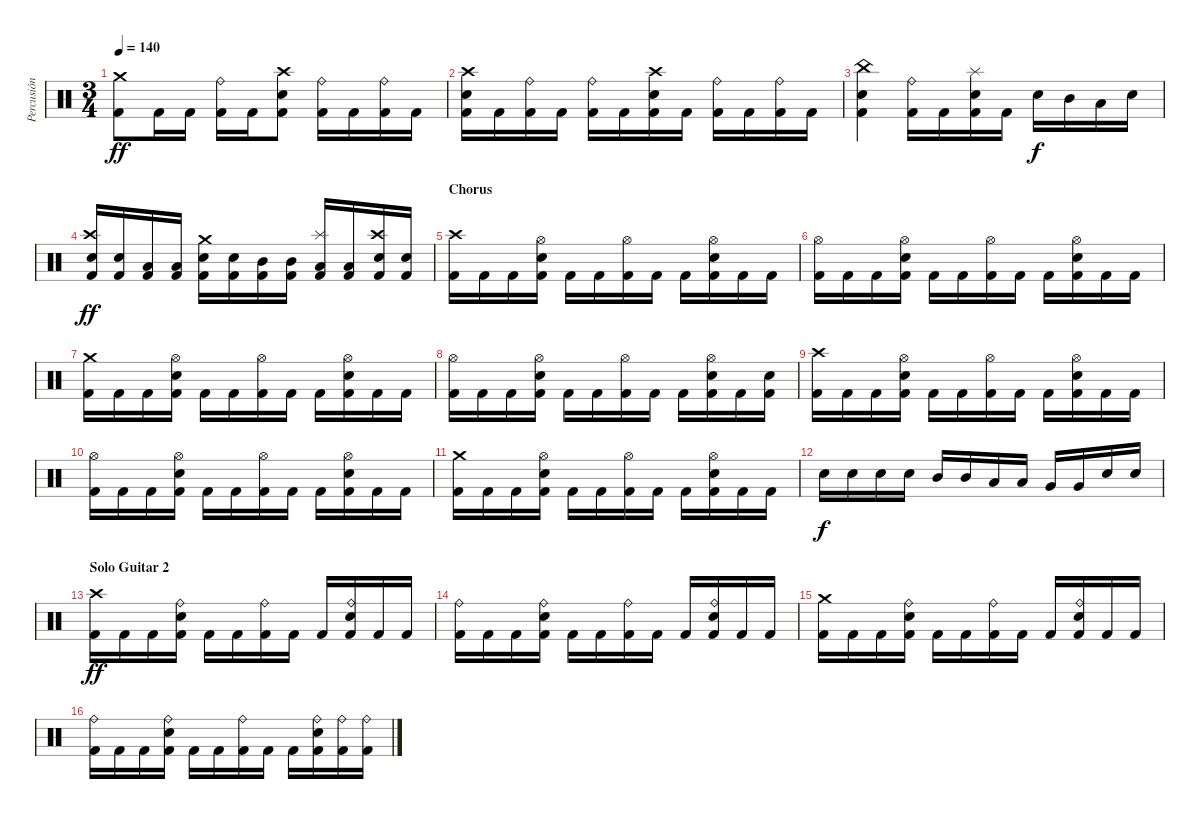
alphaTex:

\track ("Percusión" "Percusión") {instrument percussion}
\staff {score}
\articulation defaults
\ts (3 4)
\tempo 140
\clef neutral
\ks c
("Crash medium (hit)" "Kick (hit) 2").8{dy ff} "Kick (hit) 2".16 "Kick (hit) 2".16 ("Ride (bell)" "Kick (hit) 2").16 "Kick (hit) 2".16 ("Crash high (hit)" "Electric Snare (hit)" "Kick (hit) 2").8 ("Ride (bell)" "Kick (hit) 2").16 "Kick (hit) 2".16 ("Ride (bell)" "Kick (hit) 2").16 "Kick (hit) 2".16 |
("Crash high (hit)" "Electric Snare (hit)" "Kick (hit) 2").16 "Kick (hit) 2".16 ("Ride (bell)" "Kick (hit) 2").16 "Kick (hit) 2".16 ("Ride (bell)" "Kick (hit) 2").16 "Kick (hit) 2".16 ("Crash high (hit)" "Electric Snare (hit)" "Kick (hit) 2").16 "Kick (hit) 2".16 ("Ride (bell)" "Kick (hit) 2").16 "Kick (hit) 2".16 ("Ride (bell)" "Kick (hit) 2").16 "Kick (hit) 2".16 |
("China (hit)" "Electric Snare (hit)" "Kick (hit) 2").4 ("Ride (bell)" "Kick (hit) 2").16 "Kick (hit) 2".16 ("Splash (hit)" "Electric Snare (hit)" "Kick (hit) 2").16 "Kick (hit) 2".16 "Electric Snare (hit)".16{dy f} "Mid Tom (hit)".16 "Low Tom (hit)".16 "Electric Snare (hit)".16 |
("Crash high (hit)" "Electric Snare (hit)" "Kick (hit) 2").16{dy ff} ("Electric Snare (hit)" "Kick (hit) 2").16 ("Low Tom (hit)" "Kick (hit) 2").16 ("Low Tom (hit)" "Kick (hit) 2").16 ("Crash medium (hit)" "Electric Snare (hit)" "Kick (hit) 2").16 ("Electric Snare (hit)" "Kick (hit) 2").16 ("Mid Tom (hit)" "Kick (hit) 2").16 ("Mid Tom (hit)" "Kick (hit) 2").16 ("Splash (hit)" "Low Tom (hit)" "Kick (hit) 2").16 ("Low Tom (hit)" "Kick (hit) 2").16 ("Crash high (hit)" "Electric Snare (hit)" "Kick (hit) 2").16 ("Electric Snare (hit)" "Kick (hit) 2").16 |
\section ("" "Chorus")
("Crash high (hit)" "Kick (hit) 2").16 "Kick (hit) 2".16 "Kick (hit) 2".16 ("Hi-Hat (open)" "Electric Snare (hit)" "Kick (hit) 2").16 "Kick (hit) 2".16 "Kick (hit) 2".16 ("Hi-Hat (open)" "Kick (hit) 2").16 "Kick (hit) 2".16 "Kick (hit) 2".16 ("Hi-Hat (open)" "Electric Snare (hit)" "Kick (hit) 2").16 "Kick (hit) 2".16 "Kick (hit) 2".16 |
("Hi-Hat (open)" "Kick (hit) 2").16 "Kick (hit) 2".16 "Kick (hit) 2".16 ("Hi-Hat (open)" "Electric Snare (hit)" "Kick (hit) 2").16 "Kick (hit) 2".16 "Kick (hit) 2".16 ("Hi-Hat (open)" "Kick (hit) 2").16 "Kick (hit) 2".16 "Kick (hit) 2".16 ("Hi-Hat (open)" "Electric Snare (hit)" "Kick (hit) 2").16 "Kick (hit) 2".16 "Kick (hit) 2".16 |
("Crash medium (hit)" "Kick (hit) 2").16 "Kick (hit) 2".16 "Kick (hit) 2".16 ("Hi-Hat (open)" "Electric Snare (hit)" "Kick (hit) 2").16 "Kick (hit) 2".16 "Kick (hit) 2".16 ("Hi-Hat (open)" "Kick (hit) 2").16 "Kick (hit) 2".16 "Kick (hit) 2".16 ("Hi-Hat (open)" "Electric Snare (hit)" "Kick (hit) 2").16 "Kick (hit) 2".16 "Kick (hit) 2".16 |
("Hi-Hat (open)" "Kick (hit) 2").16 "Kick (hit) 2".16 "Kick (hit) 2".16 ("Hi-Hat (open)" "Electric Snare (hit)" "Kick (hit) 2").16 "Kick (hit) 2".16 "Kick (hit) 2".16 ("Hi-Hat (open)" "Kick (hit) 2").16 "Kick (hit) 2".16 "Kick (hit) 2".16 ("Hi-Hat (open)" "Electric Snare (hit)" "Kick (hit) 2").16 "Kick (hit) 2".16 ("Electric Snare (hit)" "Kick (hit) 2").16 |
("Crash high (hit)" "Kick (hit) 2").16 "Kick (hit) 2".16 "Kick (hit) 2".16 ("Hi-Hat (open)" "Electric Snare (hit)" "Kick (hit) 2").16 "Kick (hit) 2".16 "Kick (hit) 2".16 ("Hi-Hat (open)" "Kick (hit) 2").16 "Kick (hit) 2".16 "Kick (hit) 2".16 ("Hi-Hat (open)" "Electric Snare (hit)" "Kick (hit) 2").16 "Kick (hit) 2".16 "Kick (hit) 2".16 |
("Hi-Hat (open)" "Kick (hit) 2").16 "Kick (hit) 2".16 "Kick (hit) 2".16 ("Hi-Hat (open)" "Electric Snare (hit)" "Kick (hit) 2").16 "Kick (hit) 2".16 "Kick (hit) 2".16 ("Hi-Hat (open)" "Kick (hit) 2").16 "Kick (hit) 2".16 "Kick (hit) 2".16 ("Hi-Hat (open)" "Electric Snare (hit)" "Kick (hit) 2").16 "Kick (hit) 2".16 "Kick (hit) 2".16 |
("Crash medium (hit)" "Kick (hit) 2").16 "Kick (hit) 2".16 "Kick (hit) 2".16 ("Hi-Hat (open)" "Electric Snare (hit)" "Kick (hit) 2").16 "Kick (hit) 2".16 "Kick (hit) 2".16 ("Hi-Hat (open)" "Kick (hit) 2").16 "Kick (hit) 2".16 "Kick (hit) 2".16 ("Hi-Hat (open)" "Electric Snare (hit)" "Kick (hit) 2").16 "Kick (hit) 2".16 "Kick (hit) 2".16 |
"Electric Snare (hit)".16{dy f} "Electric Snare (hit)".16 "Electric Snare (hit)".16 "Electric Snare (hit)".16 "Mid Tom (hit)".16 "Mid Tom (hit)".16 "Low Tom (hit)".16 "Low Tom (hit)".16 "Very Low Tom (hit)".16 "Very Low Tom (hit)".16 "Electric Snare (hit)".16 "Electric Snare (hit)".16 |
\section ("" "Solo Guitar 2")
("Crash high (hit)" "Kick (hit) 2").16{dy ff} "Kick (hit) 2".16 "Kick (hit) 2".16 ("Ride (bell)" "Electric Snare (hit)" "Kick (hit) 2").16 "Kick (hit) 2".16 "Kick (hit) 2".16 ("Ride (bell)" "Kick (hit) 2").16 "Kick (hit) 2".16 "Kick (hit) 2".16 ("Ride (bell)" "Electric Snare (hit)" "Kick (hit) 2").16 "Kick (hit) 2".16 "Kick (hit) 2".16 |
("Ride (bell)" "Kick (hit) 2").16 "Kick (hit) 2".16 "Kick (hit) 2".16 ("Ride (bell)" "Electric Snare (hit)" "Kick (hit) 2").16 "Kick (hit) 2".16 "Kick (hit) 2".16 ("Ride (bell)" "Kick (hit) 2").16 "Kick (hit) 2".16 "Kick (hit) 2".16 ("Ride (bell)" "Electric Snare (hit)" "Kick (hit) 2").16 "Kick (hit) 2".16 "Kick (hit) 2".16 |
("Crash medium (hit)" "Kick (hit) 2").16 "Kick (hit) 2".16 "Kick (hit) 2".16 ("Ride (bell)" "Electric Snare (hit)" "Kick (hit) 2").16 "Kick (hit) 2".16 "Kick (hit) 2".16 ("Ride (bell)" "Kick (hit) 2").16 "Kick (hit) 2".16 "Kick (hit) 2".16 ("Ride (bell)" "Electric Snare (hit)" "Kick (hit) 2").16 "Kick (hit) 2".16 "Kick (hit) 2".16 |
("Ride (bell)" "Kick (hit) 2").16 "Kick (hit) 2".16 "Kick (hit) 2".16 ("Ride (bell)" "Electric Snare (hit)" "Kick (hit) 2").16 "Kick (hit) 2".16 "Kick (hit) 2".16 ("Ride (bell)" "Kick (hit) 2").16 "Kick (hit) 2".16 "Kick (hit) 2".16 ("Ride (bell)" "Electric Snare (hit)" "Kick (hit) 2").16 ("Ride (bell)" "Kick (hit) 2").16 ("Ride (bell)" "Kick (hit) 2").16
